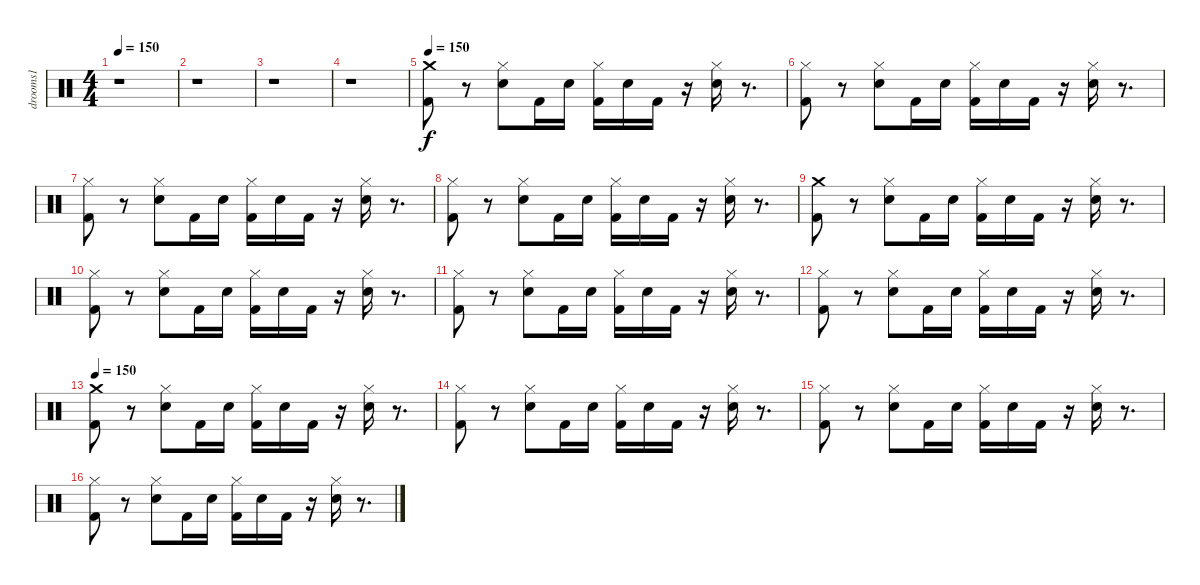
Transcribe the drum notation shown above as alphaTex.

\track ("drooms1" "drooms1") {instrument percussion}
\staff {score}
\articulation defaults
\ts (4 4)
\tempo 150
\clef neutral
\ks c
r.1{dy f} |
r.1 |
r.1 |
r.1 |
\tempo 150
("Crash medium (hit)" "Kick (hit) 2").8 r.8 ("Hi-Hat (closed)" "Electric Snare (hit)").8 "Kick (hit) 2".16 "Electric Snare (hit)".16 ("Hi-Hat (closed)" "Kick (hit) 2").16 "Electric Snare (hit)".16 "Kick (hit) 2".16 r.16 ("Hi-Hat (closed)" "Electric Snare (hit)").16 r.8{d} |
("Hi-Hat (closed)" "Kick (hit) 2").8 r.8 ("Hi-Hat (closed)" "Electric Snare (hit)").8 "Kick (hit) 2".16 "Electric Snare (hit)".16 ("Hi-Hat (closed)" "Kick (hit) 2").16 "Electric Snare (hit)".16 "Kick (hit) 2".16 r.16 ("Hi-Hat (closed)" "Electric Snare (hit)").16 r.8{d} |
("Hi-Hat (closed)" "Kick (hit) 2").8 r.8 ("Hi-Hat (closed)" "Electric Snare (hit)").8 "Kick (hit) 2".16 "Electric Snare (hit)".16 ("Hi-Hat (closed)" "Kick (hit) 2").16 "Electric Snare (hit)".16 "Kick (hit) 2".16 r.16 ("Hi-Hat (closed)" "Electric Snare (hit)").16 r.8{d} |
("Hi-Hat (closed)" "Kick (hit) 2").8 r.8 ("Hi-Hat (closed)" "Electric Snare (hit)").8 "Kick (hit) 2".16 "Electric Snare (hit)".16 ("Hi-Hat (closed)" "Kick (hit) 2").16 "Electric Snare (hit)".16 "Kick (hit) 2".16 r.16 ("Hi-Hat (closed)" "Electric Snare (hit)").16 r.8{d} |
("Crash medium (hit)" "Kick (hit) 2").8 r.8 ("Hi-Hat (closed)" "Electric Snare (hit)").8 "Kick (hit) 2".16 "Electric Snare (hit)".16 ("Hi-Hat (closed)" "Kick (hit) 2").16 "Electric Snare (hit)".16 "Kick (hit) 2".16 r.16 ("Hi-Hat (closed)" "Electric Snare (hit)").16 r.8{d} |
("Hi-Hat (closed)" "Kick (hit) 2").8 r.8 ("Hi-Hat (closed)" "Electric Snare (hit)").8 "Kick (hit) 2".16 "Electric Snare (hit)".16 ("Hi-Hat (closed)" "Kick (hit) 2").16 "Electric Snare (hit)".16 "Kick (hit) 2".16 r.16 ("Hi-Hat (closed)" "Electric Snare (hit)").16 r.8{d} |
("Hi-Hat (closed)" "Kick (hit) 2").8 r.8 ("Hi-Hat (closed)" "Electric Snare (hit)").8 "Kick (hit) 2".16 "Electric Snare (hit)".16 ("Hi-Hat (closed)" "Kick (hit) 2").16 "Electric Snare (hit)".16 "Kick (hit) 2".16 r.16 ("Hi-Hat (closed)" "Electric Snare (hit)").16 r.8{d} |
("Hi-Hat (closed)" "Kick (hit) 2").8 r.8 ("Hi-Hat (closed)" "Electric Snare (hit)").8 "Kick (hit) 2".16 "Electric Snare (hit)".16 ("Hi-Hat (closed)" "Kick (hit) 2").16 "Electric Snare (hit)".16 "Kick (hit) 2".16 r.16 ("Hi-Hat (closed)" "Electric Snare (hit)").16 r.8{d} |
\tempo 150
("Crash medium (hit)" "Kick (hit) 2").8 r.8 ("Hi-Hat (closed)" "Electric Snare (hit)").8 "Kick (hit) 2".16 "Electric Snare (hit)".16 ("Hi-Hat (closed)" "Kick (hit) 2").16 "Electric Snare (hit)".16 "Kick (hit) 2".16 r.16 ("Hi-Hat (closed)" "Electric Snare (hit)").16 r.8{d} |
("Hi-Hat (closed)" "Kick (hit) 2").8 r.8 ("Hi-Hat (closed)" "Electric Snare (hit)").8 "Kick (hit) 2".16 "Electric Snare (hit)".16 ("Hi-Hat (closed)" "Kick (hit) 2").16 "Electric Snare (hit)".16 "Kick (hit) 2".16 r.16 ("Hi-Hat (closed)" "Electric Snare (hit)").16 r.8{d} |
("Hi-Hat (closed)" "Kick (hit) 2").8 r.8 ("Hi-Hat (closed)" "Electric Snare (hit)").8 "Kick (hit) 2".16 "Electric Snare (hit)".16 ("Hi-Hat (closed)" "Kick (hit) 2").16 "Electric Snare (hit)".16 "Kick (hit) 2".16 r.16 ("Hi-Hat (closed)" "Electric Snare (hit)").16 r.8{d} |
("Hi-Hat (closed)" "Kick (hit) 2").8 r.8 ("Hi-Hat (closed)" "Electric Snare (hit)").8 "Kick (hit) 2".16 "Electric Snare (hit)".16 ("Hi-Hat (closed)" "Kick (hit) 2").16 "Electric Snare (hit)".16 "Kick (hit) 2".16 r.16 ("Hi-Hat (closed)" "Electric Snare (hit)").16 r.8{d}
